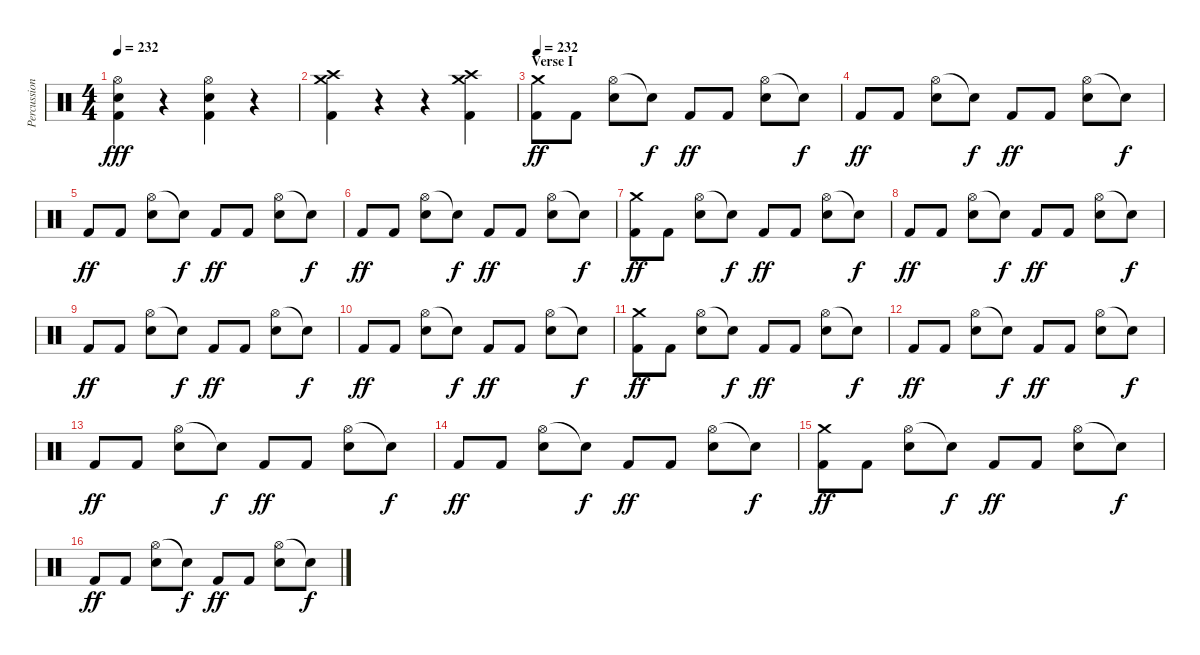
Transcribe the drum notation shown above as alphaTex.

\track ("Percussion" "Percussion") {instrument percussion}
\staff {score}
\articulation defaults
\ts (4 4)
\tempo 232
\clef neutral
\ks c
("Hi-Hat (open)" "Snare (hit) 2" "Kick (hit) 2").4{dy fff} r.4 ("Hi-Hat (open)" "Snare (hit) 2" "Kick (hit) 2").4 r.4 |
("Crash high (hit)" "Crash medium (hit)" "Kick (hit) 2").4 r.4 r.4 ("Crash high (hit)" "Crash medium (hit)" "Kick (hit) 2").4 |
\section ("" "Verse I")
\tempo 232
("Crash medium (hit)" "Kick (hit) 2").8{dy ff} "Kick (hit) 2".8 ("Hi-Hat (open)" "Snare (hit) 2").8 "Snare (hit)"{t}.8{dy f} "Kick (hit) 2".8{dy ff} "Kick (hit) 2".8 ("Hi-Hat (open)" "Snare (hit) 2").8 "Snare (hit)"{t}.8{dy f} |
"Kick (hit) 2".8{dy ff} "Kick (hit) 2".8 ("Hi-Hat (open)" "Snare (hit) 2").8 "Snare (hit)"{t}.8{dy f} "Kick (hit) 2".8{dy ff} "Kick (hit) 2".8 ("Hi-Hat (open)" "Snare (hit) 2").8 "Snare (hit)"{t}.8{dy f} |
"Kick (hit) 2".8{dy ff} "Kick (hit) 2".8 ("Hi-Hat (open)" "Snare (hit) 2").8 "Snare (hit)"{t}.8{dy f} "Kick (hit) 2".8{dy ff} "Kick (hit) 2".8 ("Hi-Hat (open)" "Snare (hit) 2").8 "Snare (hit)"{t}.8{dy f} |
"Kick (hit) 2".8{dy ff} "Kick (hit) 2".8 ("Hi-Hat (open)" "Snare (hit) 2").8 "Snare (hit)"{t}.8{dy f} "Kick (hit) 2".8{dy ff} "Kick (hit) 2".8 ("Hi-Hat (open)" "Snare (hit) 2").8 "Snare (hit)"{t}.8{dy f} |
("Crash medium (hit)" "Kick (hit) 2").8{dy ff} "Kick (hit) 2".8 ("Hi-Hat (open)" "Snare (hit) 2").8 "Snare (hit)"{t}.8{dy f} "Kick (hit) 2".8{dy ff} "Kick (hit) 2".8 ("Hi-Hat (open)" "Snare (hit) 2").8 "Snare (hit)"{t}.8{dy f} |
"Kick (hit) 2".8{dy ff} "Kick (hit) 2".8 ("Hi-Hat (open)" "Snare (hit) 2").8 "Snare (hit)"{t}.8{dy f} "Kick (hit) 2".8{dy ff} "Kick (hit) 2".8 ("Hi-Hat (open)" "Snare (hit) 2").8 "Snare (hit)"{t}.8{dy f} |
"Kick (hit) 2".8{dy ff} "Kick (hit) 2".8 ("Hi-Hat (open)" "Snare (hit) 2").8 "Snare (hit)"{t}.8{dy f} "Kick (hit) 2".8{dy ff} "Kick (hit) 2".8 ("Hi-Hat (open)" "Snare (hit) 2").8 "Snare (hit)"{t}.8{dy f} |
"Kick (hit) 2".8{dy ff} "Kick (hit) 2".8 ("Hi-Hat (open)" "Snare (hit) 2").8 "Snare (hit)"{t}.8{dy f} "Kick (hit) 2".8{dy ff} "Kick (hit) 2".8 ("Hi-Hat (open)" "Snare (hit) 2").8 "Snare (hit)"{t}.8{dy f} |
("Crash medium (hit)" "Kick (hit) 2").8{dy ff} "Kick (hit) 2".8 ("Hi-Hat (open)" "Snare (hit) 2").8 "Snare (hit)"{t}.8{dy f} "Kick (hit) 2".8{dy ff} "Kick (hit) 2".8 ("Hi-Hat (open)" "Snare (hit) 2").8 "Snare (hit)"{t}.8{dy f} |
"Kick (hit) 2".8{dy ff} "Kick (hit) 2".8 ("Hi-Hat (open)" "Snare (hit) 2").8 "Snare (hit)"{t}.8{dy f} "Kick (hit) 2".8{dy ff} "Kick (hit) 2".8 ("Hi-Hat (open)" "Snare (hit) 2").8 "Snare (hit)"{t}.8{dy f} |
"Kick (hit) 2".8{dy ff} "Kick (hit) 2".8 ("Hi-Hat (open)" "Snare (hit) 2").8 "Snare (hit)"{t}.8{dy f} "Kick (hit) 2".8{dy ff} "Kick (hit) 2".8 ("Hi-Hat (open)" "Snare (hit) 2").8 "Snare (hit)"{t}.8{dy f} |
"Kick (hit) 2".8{dy ff} "Kick (hit) 2".8 ("Hi-Hat (open)" "Snare (hit) 2").8 "Snare (hit)"{t}.8{dy f} "Kick (hit) 2".8{dy ff} "Kick (hit) 2".8 ("Hi-Hat (open)" "Snare (hit) 2").8 "Snare (hit)"{t}.8{dy f} |
("Crash medium (hit)" "Kick (hit) 2").8{dy ff} "Kick (hit) 2".8 ("Hi-Hat (open)" "Snare (hit) 2").8 "Snare (hit)"{t}.8{dy f} "Kick (hit) 2".8{dy ff} "Kick (hit) 2".8 ("Hi-Hat (open)" "Snare (hit) 2").8 "Snare (hit)"{t}.8{dy f} |
"Kick (hit) 2".8{dy ff} "Kick (hit) 2".8 ("Hi-Hat (open)" "Snare (hit) 2").8 "Snare (hit)"{t}.8{dy f} "Kick (hit) 2".8{dy ff} "Kick (hit) 2".8 ("Hi-Hat (open)" "Snare (hit) 2").8 "Snare (hit)"{t}.8{dy f}
